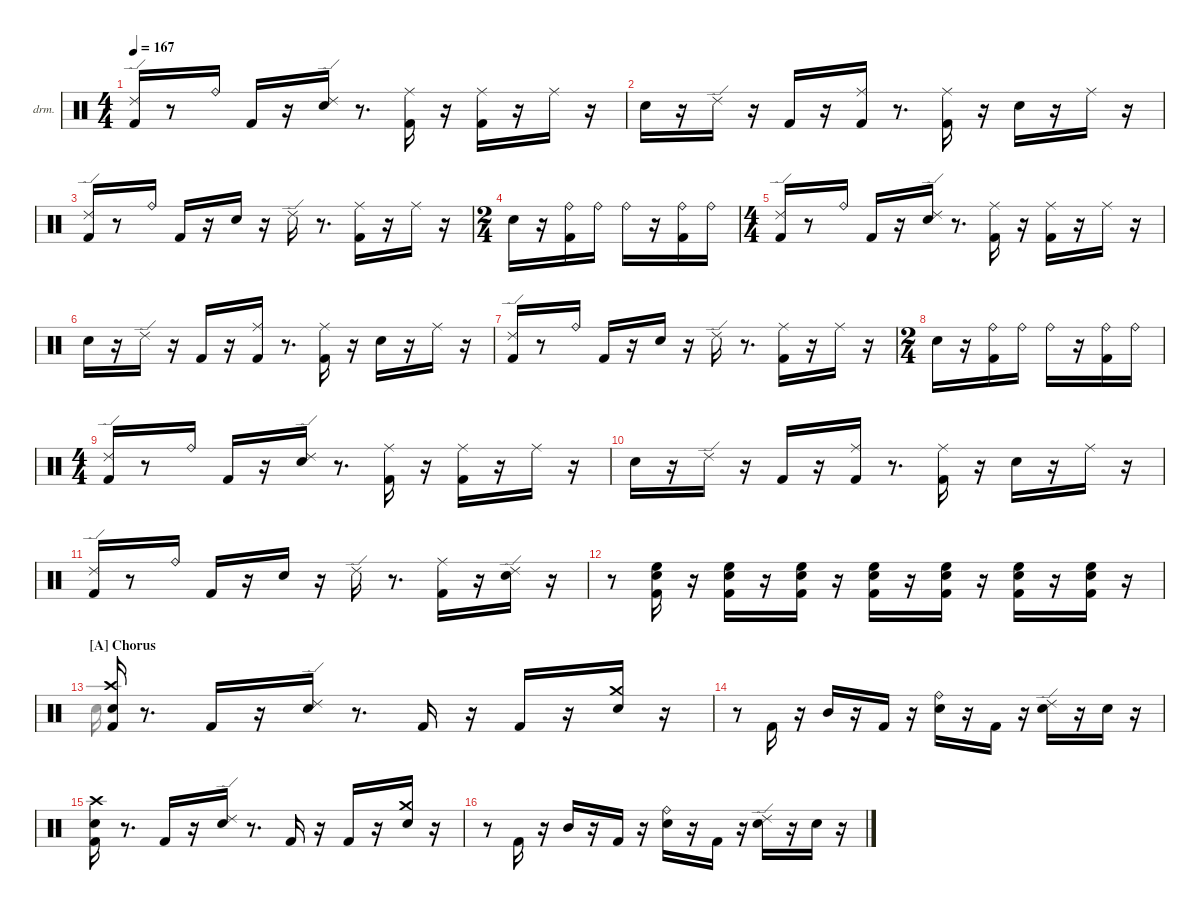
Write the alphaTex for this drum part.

\hideDynamics
\bracketExtendMode nobrackets
\firstSystemTrackNameOrientation horizontal
\otherSystemsTrackNameOrientation horizontal
\track ("Drums" "drm.") {instrument percussion}
\staff {score}
\articulation defaults
\voice
\ts (4 4)
\tempo 167
\clef neutral
\ks aminor
("Kick (hit) 2" "Ride (edge) 2").16{dy ff beam Up} r.8{beam Up} "Ride (bell)".16{dy mf beam Down} "Kick (hit) 2".16{dy ff beam Up} r.16{beam Up} ("Snare (hit) 2" "Ride (edge) 2").16{beam Down} r.8{d beam Down} ("Kick (hit) 2" "Ride (middle)"{acc #}).16{dy mf beam Down} r.16{beam Down} ("Kick (hit) 2" "Ride (middle)"{acc #}).16{dy ff beam Down} r.16{beam Down} "Ride (middle)"{acc #}.16{dy mp beam Down} r.16{beam Down} |
"Snare (hit) 2".16{dy ff beam Down} r.16{beam Down} "Ride (edge) 2".16{dy f beam Down} r.16{beam Down} "Kick (hit) 2".16{dy mf beam Up} r.16{beam Up} ("Kick (hit) 2" "Ride (middle)"{acc #}).16{dy ff beam Down} r.8{d beam Down} ("Kick (hit) 2" "Ride (middle)"{acc #}).16{beam Down} r.16{beam Down} "Snare (hit) 2".16{beam Down} r.16{beam Down} "Ride (middle)"{acc #}.16{beam Down} r.16{beam Down} |
("Kick (hit) 2" "Ride (edge) 2").16{beam Up} r.8{beam Up} "Ride (bell)".16{dy mf beam Down} "Kick (hit) 2".16{dy ff beam Up} r.16{beam Up} "Snare (hit) 2".16{beam Down} r.16{beam Down} "Ride (edge) 2".16{beam Down} r.8{d beam Down} ("Kick (hit) 2" "Ride (middle)"{acc #}).16{beam Down} r.16{beam Down} "Ride (middle)"{acc #}.16{dy mp beam Down} r.16{beam Down} |
\ts (2 4)
"Snare (hit) 2".16{dy ff beam Down} r.16{beam Down} ("Kick (hit) 2" "Ride (bell)").16{dy f beam Down} "Ride (bell)".16{dy mp beam Down} "Ride (bell)".16{dy mf beam Down} r.16{beam Down} ("Kick (hit) 2" "Ride (bell)").16{dy f beam Down} "Ride (bell)".16{dy mp beam Down} |
\ts (4 4)
("Kick (hit) 2" "Ride (edge) 2").16{dy ff beam Up} r.8{beam Up} "Ride (bell)".16{dy mf beam Down} "Kick (hit) 2".16{dy ff beam Up} r.16{beam Up} ("Snare (hit) 2" "Ride (edge) 2").16{beam Down} r.8{d beam Down} ("Kick (hit) 2" "Ride (middle)"{acc #}).16{dy mf beam Down} r.16{beam Down} ("Kick (hit) 2" "Ride (middle)"{acc #}).16{dy ff beam Down} r.16{beam Down} "Ride (middle)"{acc #}.16{dy mp beam Down} r.16{beam Down} |
"Snare (hit) 2".16{dy ff beam Down} r.16{beam Down} "Ride (edge) 2".16{dy f beam Down} r.16{beam Down} "Kick (hit) 2".16{dy mf beam Up} r.16{beam Up} ("Kick (hit) 2" "Ride (middle)"{acc #}).16{dy ff beam Down} r.8{d beam Down} ("Kick (hit) 2" "Ride (middle)"{acc #}).16{beam Down} r.16{beam Down} "Snare (hit) 2".16{beam Down} r.16{beam Down} "Ride (middle)"{acc #}.16{beam Down} r.16{beam Down} |
("Kick (hit) 2" "Ride (edge) 2").16{beam Up} r.8{beam Up} "Ride (bell)".16{dy mf beam Down} "Kick (hit) 2".16{dy ff beam Up} r.16{beam Up} "Snare (hit) 2".16{beam Down} r.16{beam Down} "Ride (edge) 2".16{beam Down} r.8{d beam Down} ("Kick (hit) 2" "Ride (middle)"{acc #}).16{beam Down} r.16{beam Down} "Ride (middle)"{acc #}.16{dy mp beam Down} r.16{beam Down} |
\ts (2 4)
"Snare (hit) 2".16{dy ff beam Down} r.16{beam Down} ("Kick (hit) 2" "Ride (bell)").16{dy f beam Down} "Ride (bell)".16{dy mp beam Down} "Ride (bell)".16{dy mf beam Down} r.16{beam Down} ("Kick (hit) 2" "Ride (bell)").16{dy f beam Down} "Ride (bell)".16{dy mp beam Down} |
\ts (4 4)
("Kick (hit) 2" "Ride (edge) 2").16{dy ff beam Up} r.8{beam Up} "Ride (bell)".16{dy mf beam Down} "Kick (hit) 2".16{dy ff beam Up} r.16{beam Up} ("Snare (hit) 2" "Ride (edge) 2").16{beam Down} r.8{d beam Down} ("Kick (hit) 2" "Ride (middle)"{acc #}).16{dy mf beam Down} r.16{beam Down} ("Kick (hit) 2" "Ride (middle)"{acc #}).16{dy ff beam Down} r.16{beam Down} "Ride (middle)"{acc #}.16{dy mp beam Down} r.16{beam Down} |
"Snare (hit) 2".16{dy ff beam Down} r.16{beam Down} "Ride (edge) 2".16{dy f beam Down} r.16{beam Down} "Kick (hit) 2".16{dy mf beam Up} r.16{beam Up} ("Kick (hit) 2" "Ride (middle)"{acc #}).16{dy ff beam Down} r.8{d beam Down} ("Kick (hit) 2" "Ride (middle)"{acc #}).16{beam Down} r.16{beam Down} "Snare (hit) 2".16{beam Down} r.16{beam Down} "Ride (middle)"{acc #}.16{beam Down} r.16{beam Down} |
("Kick (hit) 2" "Ride (edge) 2").16{beam Up} r.8{beam Up} "Ride (bell)".16{dy mf beam Down} "Kick (hit) 2".16{dy ff beam Up} r.16{beam Up} "Snare (hit) 2".16{beam Down} r.16{beam Down} "Ride (edge) 2".16{beam Down} r.8{d beam Down} ("Kick (hit) 2" "Ride (middle)"{acc #}).16{beam Down} r.16{beam Down} ("Snare (hit) 2" "Ride (edge) 2").16{beam Down} r.16{beam Down} |
r.8{beam Down} ("Kick (hit) 2" "Snare (hit) 2" "High Floor Tom (hit)").16{beam Down} r.16{beam Down} ("Kick (hit) 2" "Snare (hit) 2" "High Floor Tom (hit)").16{beam Down} r.16{beam Down} ("Kick (hit) 2" "Snare (hit) 2" "High Floor Tom (hit)").16{beam Down} r.16{beam Down} ("Kick (hit) 2" "Snare (hit) 2" "High Floor Tom (hit)").16{beam Down} r.16{beam Down} ("Kick (hit) 2" "Snare (hit) 2" "High Floor Tom (hit)").16{beam Down} r.16{beam Down} ("Kick (hit) 2" "Snare (hit) 2" "High Floor Tom (hit)").16{beam Down} r.16{beam Down} ("Kick (hit) 2" "Snare (hit) 2" "High Floor Tom (hit)").16{beam Down} r.16{beam Down} |
\section ("A" "Chorus")
("Kick (hit) 2" "Snare (hit) 2" "Crash high (hit)"{acc #}).16{beam Up} r.8{d beam Up} "Kick (hit) 2".16{beam Up} r.16{beam Up} ("Ride (edge) 2" "Snare (hit) 2").16{beam Up} r.8{d beam Up} "Kick (hit) 2".16{dy mf beam Up} r.16{beam Up} "Kick (hit) 2".16{dy ff beam Up} r.16{beam Up} ("Snare (hit) 2" "Crash medium (hit)").16{beam Up} r.16{beam Up} |
r.8{beam Down} "Kick (hit) 2".16{beam Up} r.16{beam Up} "Mid Tom (hit)".16{beam Up} r.16{beam Up} "Kick (hit) 2".16{beam Up} r.16{beam Up} ("Snare (hit) 2" "Ride (bell)").16{dy f beam Down} r.16{beam Down} "Kick (hit) 2".16{dy ff beam Up} r.16{beam Up} ("Ride (edge) 2" "Snare (hit) 2").16{beam Down} r.16{beam Down} "Snare (hit) 2".16{dy mf beam Down} r.16{beam Down} |
("Kick (hit) 2" "Snare (hit) 2" "Crash high (hit)"{acc #}).16{dy ff beam Down} r.8{d beam Down} "Kick (hit) 2".16{beam Up} r.16{beam Up} ("Snare (hit) 2" "Ride (edge) 2").16{beam Down} r.8{d beam Down} "Kick (hit) 2".16{dy mf beam Up} r.16{beam Up} "Kick (hit) 2".16{dy ff beam Up} r.16{beam Up} ("Snare (hit) 2" "Crash medium (hit)").16{beam Down} r.16{beam Down} |
r.8{beam Down} "Kick (hit) 2".16{beam Up} r.16{beam Up} "Mid Tom (hit)".16{beam Up} r.16{beam Up} "Kick (hit) 2".16{beam Up} r.16{beam Up} ("Snare (hit) 2" "Ride (bell)").16{dy f beam Down} r.16{beam Down} "Kick (hit) 2".16{dy ff beam Up} r.16{beam Up} ("Snare (hit) 2" "Ride (edge) 2").16{dy f beam Down} r.16{beam Down} "Snare (hit) 2".16{dy mf beam Down} r.16{beam Down}
\voice
\clef neutral
\ottava regular
\simile none
\ks aminor
|
|
|
|
|
|
|
|
|
|
|
|
"Snare (hit) 2".16{beam Down} |
|
|
